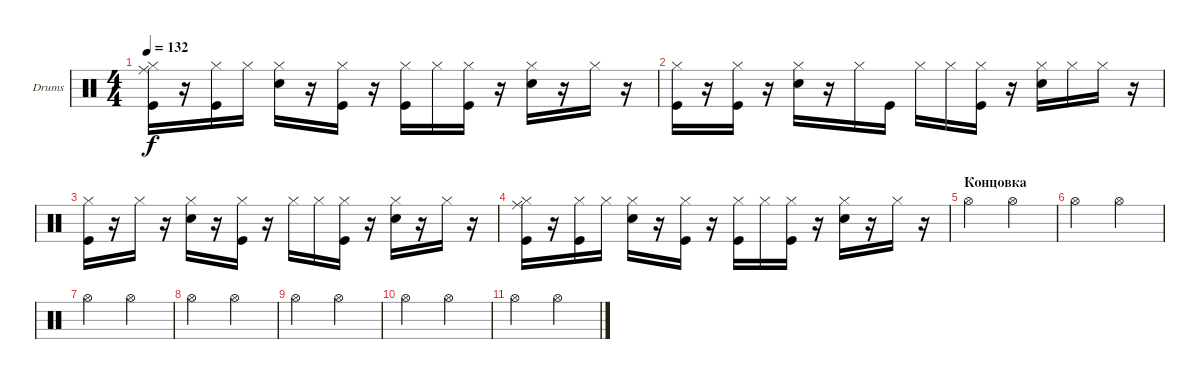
\defaultSystemsLayout 4
\bracketExtendMode groupsimilarinstruments
\firstSystemTrackNameOrientation horizontal
\otherSystemsTrackNameOrientation horizontal
\track ("Drumkit" "Drums") {instrument percussion}
\staff {score}
\articulation defaults
\ts (4 4)
\tempo 132
\clef neutral
\ks c
("Kick (hit)" "Ride (middle)" "Hi-Hat (closed)").16{dy f} r.16 ("Kick (hit)" "Hi-Hat (closed)").16 "Hi-Hat (closed)".16 ("Snare (hit) 2" "Hi-Hat (closed)").16 r.16 ("Kick (hit)" "Hi-Hat (closed)").16 r.16 ("Kick (hit)" "Hi-Hat (closed)").16 "Hi-Hat (closed)".16 ("Kick (hit)" "Hi-Hat (closed)").16 r.16 ("Snare (hit) 2" "Hi-Hat (closed)").16 r.16 "Hi-Hat (closed)".16 r.16 |
("Kick (hit)" "Hi-Hat (closed)").16 r.16 ("Kick (hit)" "Hi-Hat (closed)").16 r.16 ("Snare (hit) 2" "Hi-Hat (closed)").16 r.16 "Hi-Hat (closed)".16 "Kick (hit)".16 "Hi-Hat (closed)".16 "Hi-Hat (closed)".16 ("Kick (hit)" "Hi-Hat (closed)").16 r.16 ("Snare (hit) 2" "Hi-Hat (closed)").16 "Hi-Hat (closed)".16 "Hi-Hat (closed)".16 r.16 |
("Kick (hit)" "Hi-Hat (closed)").16 r.16 "Hi-Hat (closed)".16 r.16 ("Snare (hit) 2" "Hi-Hat (closed)").16 r.16 ("Kick (hit)" "Hi-Hat (closed)").16 r.16 "Hi-Hat (closed)".16 "Hi-Hat (closed)".16 ("Kick (hit)" "Hi-Hat (closed)").16 r.16 ("Snare (hit) 2" "Hi-Hat (closed)").16 r.16 "Hi-Hat (closed)".16 r.16 |
("Kick (hit)" "Ride (middle)" "Hi-Hat (closed)").16 r.16 ("Kick (hit)" "Hi-Hat (closed)").16 "Hi-Hat (closed)".16 ("Snare (hit) 2" "Hi-Hat (closed)").16 r.16 ("Kick (hit)" "Hi-Hat (closed)").16 r.16 ("Kick (hit)" "Hi-Hat (closed)").16 "Hi-Hat (closed)".16 ("Kick (hit)" "Hi-Hat (closed)").16 r.16 ("Snare (hit) 2" "Hi-Hat (closed)").16 r.16 "Hi-Hat (closed)".16 r.16 |
\section ("" "Концовка")
"Hi-Hat (open)".2 "Hi-Hat (open)".2 |
"Hi-Hat (open)".2 "Hi-Hat (open)".2 |
"Hi-Hat (open)".2 "Hi-Hat (open)".2 |
"Hi-Hat (open)".2 "Hi-Hat (open)".2 |
"Hi-Hat (open)".2 "Hi-Hat (open)".2 |
"Hi-Hat (open)".2 "Hi-Hat (open)".2 |
"Hi-Hat (open)".2 "Hi-Hat (open)".2
